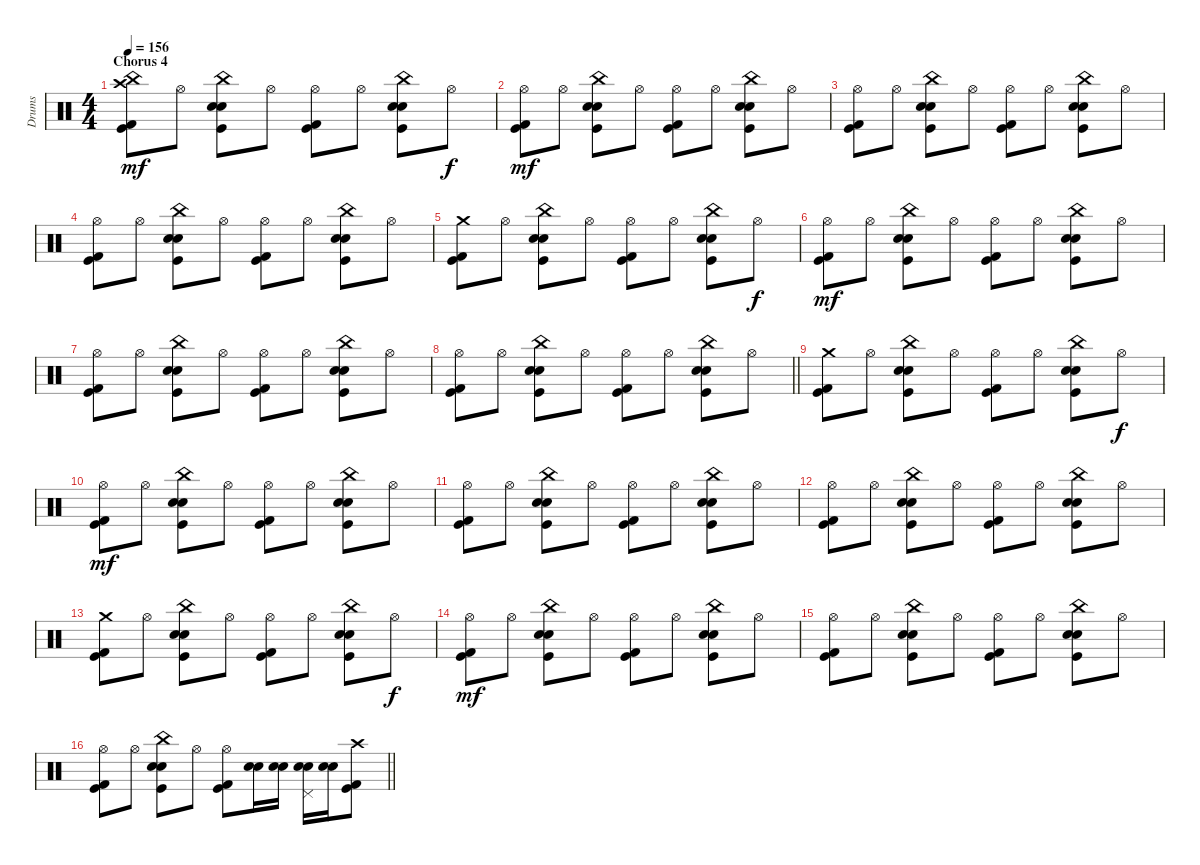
\track ("Drums" "Drums") {instrument percussion}
\staff {score}
\articulation defaults
\ts (4 4)
\section ("" "Chorus 4")
\tempo 156
\clef neutral
\ks c
("Crash high (hit)" "China (hit)" "Kick (hit) 2" "Kick (hit)").8{dy mf} "Hi-Hat (open)".8 ("China (hit)" "Snare (hit) 2" "Electric Snare (hit)" "Kick (hit)").8 "Hi-Hat (open)".8 ("Hi-Hat (open)" "Kick (hit) 2" "Kick (hit)").8 "Hi-Hat (open)".8 ("China (hit)" "Snare (hit) 2" "Electric Snare (hit)" "Kick (hit)").8 "Hi-Hat (open)".8{dy f} |
("Hi-Hat (open)" "Kick (hit) 2" "Kick (hit)").8{dy mf} "Hi-Hat (open)".8 ("China (hit)" "Snare (hit) 2" "Electric Snare (hit)" "Kick (hit)").8 "Hi-Hat (open)".8 ("Hi-Hat (open)" "Kick (hit) 2" "Kick (hit)").8 "Hi-Hat (open)".8 ("China (hit)" "Snare (hit) 2" "Electric Snare (hit)" "Kick (hit)").8 "Hi-Hat (open)".8 |
("Hi-Hat (open)" "Kick (hit) 2" "Kick (hit)").8 "Hi-Hat (open)".8 ("China (hit)" "Snare (hit) 2" "Electric Snare (hit)" "Kick (hit)").8 "Hi-Hat (open)".8 ("Hi-Hat (open)" "Kick (hit) 2" "Kick (hit)").8 "Hi-Hat (open)".8 ("China (hit)" "Snare (hit) 2" "Electric Snare (hit)" "Kick (hit)").8 "Hi-Hat (open)".8 |
("Hi-Hat (open)" "Kick (hit) 2" "Kick (hit)").8 "Hi-Hat (open)".8 ("China (hit)" "Snare (hit) 2" "Electric Snare (hit)" "Kick (hit)").8 "Hi-Hat (open)".8 ("Hi-Hat (open)" "Kick (hit) 2" "Kick (hit)").8 "Hi-Hat (open)".8 ("China (hit)" "Snare (hit) 2" "Electric Snare (hit)" "Kick (hit)").8 "Hi-Hat (open)".8 |
("Crash medium (hit)" "Kick (hit) 2" "Kick (hit)").8 "Hi-Hat (open)".8 ("China (hit)" "Snare (hit) 2" "Electric Snare (hit)" "Kick (hit)").8 "Hi-Hat (open)".8 ("Hi-Hat (open)" "Kick (hit) 2" "Kick (hit)").8 "Hi-Hat (open)".8 ("China (hit)" "Snare (hit) 2" "Electric Snare (hit)" "Kick (hit)").8 "Hi-Hat (open)".8{dy f} |
("Hi-Hat (open)" "Kick (hit) 2" "Kick (hit)").8{dy mf} "Hi-Hat (open)".8 ("China (hit)" "Snare (hit) 2" "Electric Snare (hit)" "Kick (hit)").8 "Hi-Hat (open)".8 ("Hi-Hat (open)" "Kick (hit) 2" "Kick (hit)").8 "Hi-Hat (open)".8 ("China (hit)" "Snare (hit) 2" "Electric Snare (hit)" "Kick (hit)").8 "Hi-Hat (open)".8 |
("Hi-Hat (open)" "Kick (hit) 2" "Kick (hit)").8 "Hi-Hat (open)".8 ("China (hit)" "Snare (hit) 2" "Electric Snare (hit)" "Kick (hit)").8 "Hi-Hat (open)".8 ("Hi-Hat (open)" "Kick (hit) 2" "Kick (hit)").8 "Hi-Hat (open)".8 ("China (hit)" "Snare (hit) 2" "Electric Snare (hit)" "Kick (hit)").8 "Hi-Hat (open)".8 |
\barLineRight lightlight
("Hi-Hat (open)" "Kick (hit) 2" "Kick (hit)").8 "Hi-Hat (open)".8 ("China (hit)" "Snare (hit) 2" "Electric Snare (hit)" "Kick (hit)").8 "Hi-Hat (open)".8 ("Hi-Hat (open)" "Kick (hit) 2" "Kick (hit)").8 "Hi-Hat (open)".8 ("China (hit)" "Snare (hit) 2" "Electric Snare (hit)" "Kick (hit)").8 "Hi-Hat (open)".8 |
("Crash medium (hit)" "Kick (hit) 2" "Kick (hit)").8 "Hi-Hat (open)".8 ("China (hit)" "Snare (hit) 2" "Electric Snare (hit)" "Kick (hit)").8 "Hi-Hat (open)".8 ("Hi-Hat (open)" "Kick (hit) 2" "Kick (hit)").8 "Hi-Hat (open)".8 ("China (hit)" "Snare (hit) 2" "Electric Snare (hit)" "Kick (hit)").8 "Hi-Hat (open)".8{dy f} |
("Hi-Hat (open)" "Kick (hit) 2" "Kick (hit)").8{dy mf} "Hi-Hat (open)".8 ("China (hit)" "Snare (hit) 2" "Electric Snare (hit)" "Kick (hit)").8 "Hi-Hat (open)".8 ("Hi-Hat (open)" "Kick (hit) 2" "Kick (hit)").8 "Hi-Hat (open)".8 ("China (hit)" "Snare (hit) 2" "Electric Snare (hit)" "Kick (hit)").8 "Hi-Hat (open)".8 |
("Hi-Hat (open)" "Kick (hit) 2" "Kick (hit)").8 "Hi-Hat (open)".8 ("China (hit)" "Snare (hit) 2" "Electric Snare (hit)" "Kick (hit)").8 "Hi-Hat (open)".8 ("Hi-Hat (open)" "Kick (hit) 2" "Kick (hit)").8 "Hi-Hat (open)".8 ("China (hit)" "Snare (hit) 2" "Electric Snare (hit)" "Kick (hit)").8 "Hi-Hat (open)".8 |
("Hi-Hat (open)" "Kick (hit) 2" "Kick (hit)").8 "Hi-Hat (open)".8 ("China (hit)" "Snare (hit) 2" "Electric Snare (hit)" "Kick (hit)").8 "Hi-Hat (open)".8 ("Hi-Hat (open)" "Kick (hit) 2" "Kick (hit)").8 "Hi-Hat (open)".8 ("China (hit)" "Snare (hit) 2" "Electric Snare (hit)" "Kick (hit)").8 "Hi-Hat (open)".8 |
("Crash medium (hit)" "Kick (hit) 2" "Kick (hit)").8 "Hi-Hat (open)".8 ("China (hit)" "Snare (hit) 2" "Electric Snare (hit)" "Kick (hit)").8 "Hi-Hat (open)".8 ("Hi-Hat (open)" "Kick (hit) 2" "Kick (hit)").8 "Hi-Hat (open)".8 ("China (hit)" "Snare (hit) 2" "Electric Snare (hit)" "Kick (hit)").8 "Hi-Hat (open)".8{dy f} |
("Hi-Hat (open)" "Kick (hit) 2" "Kick (hit)").8{dy mf} "Hi-Hat (open)".8 ("China (hit)" "Snare (hit) 2" "Electric Snare (hit)" "Kick (hit)").8 "Hi-Hat (open)".8 ("Hi-Hat (open)" "Kick (hit) 2" "Kick (hit)").8 "Hi-Hat (open)".8 ("China (hit)" "Snare (hit) 2" "Electric Snare (hit)" "Kick (hit)").8 "Hi-Hat (open)".8 |
("Hi-Hat (open)" "Kick (hit) 2" "Kick (hit)").8 "Hi-Hat (open)".8 ("China (hit)" "Snare (hit) 2" "Electric Snare (hit)" "Kick (hit)").8 "Hi-Hat (open)".8 ("Hi-Hat (open)" "Kick (hit) 2" "Kick (hit)").8 "Hi-Hat (open)".8 ("China (hit)" "Snare (hit) 2" "Electric Snare (hit)" "Kick (hit)").8 "Hi-Hat (open)".8 |
\barLineRight lightlight
("Hi-Hat (open)" "Kick (hit) 2" "Kick (hit)").8 "Hi-Hat (open)".8 ("China (hit)" "Snare (hit) 2" "Electric Snare (hit)" "Kick (hit)").8 "Hi-Hat (open)".8 ("Hi-Hat (open)" "Kick (hit) 2" "Kick (hit)").8 ("Snare (hit) 2" "Electric Snare (hit)").16 ("Snare (hit) 2" "Electric Snare (hit)").16 ("Pedal Hi-Hat (hit)" "Snare (hit) 2" "Electric Snare (hit)").16 ("Snare (hit) 2" "Electric Snare (hit)").16 ("Crash high (hit)" "Kick (hit) 2" "Kick (hit)").8
